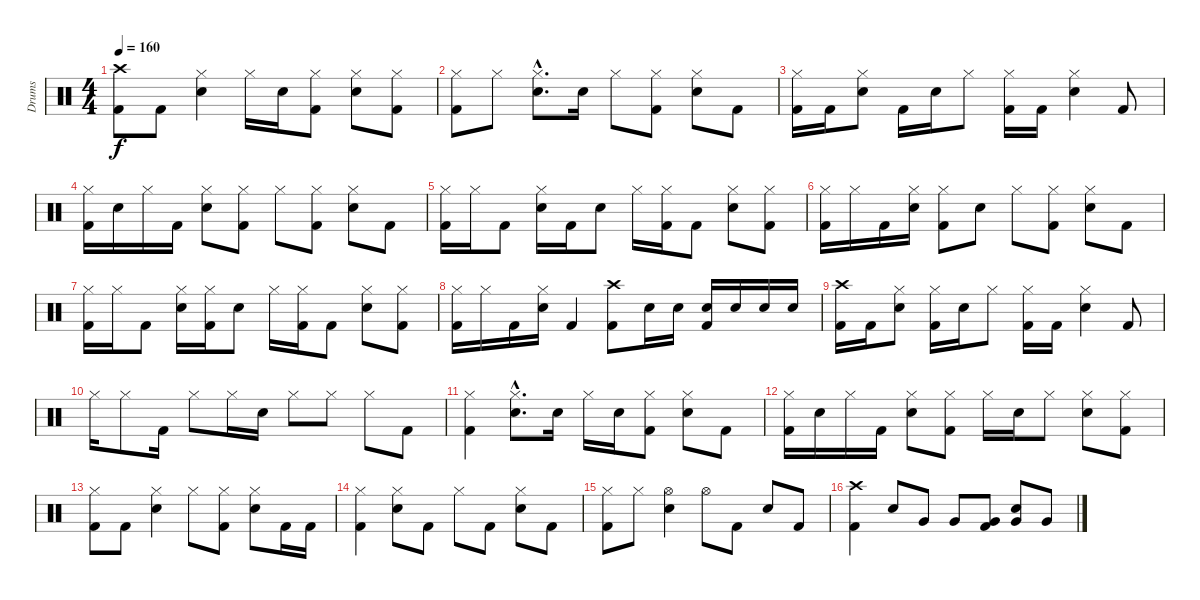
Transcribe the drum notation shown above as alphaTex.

\track ("Drums" "Drums") {instrument percussion}
\staff {score}
\articulation defaults
\ts (4 4)
\tempo 160
\clef neutral
\ks c
("Crash high (hit)" "Kick (hit) 2").8{dy f} "Kick (hit) 2".8 ("Hi-Hat (closed)" "Snare (hit) 2").4 "Hi-Hat (closed)".16 "Snare (hit) 2".16 ("Hi-Hat (closed)" "Kick (hit) 2").8 ("Hi-Hat (closed)" "Snare (hit) 2").8 ("Hi-Hat (closed)" "Kick (hit) 2").8 |
("Hi-Hat (closed)" "Kick (hit) 2").8 "Hi-Hat (closed)".8 ("Hi-Hat (closed)"{hac} "Snare (hit) 2"{hac}).8{d} "Snare (hit) 2".16 "Hi-Hat (closed)".8 ("Hi-Hat (closed)" "Kick (hit) 2").8 ("Hi-Hat (closed)" "Snare (hit) 2").8 "Kick (hit) 2".8 |
("Hi-Hat (closed)" "Kick (hit) 2").16 "Kick (hit) 2".16 ("Hi-Hat (closed)" "Snare (hit) 2").8 "Kick (hit) 2".16 "Snare (hit) 2".16 "Hi-Hat (closed)".8 ("Hi-Hat (closed)" "Kick (hit) 2").16 "Kick (hit) 2".16 ("Hi-Hat (closed)" "Snare (hit) 2").4 "Kick (hit) 2".8 |
("Hi-Hat (closed)" "Kick (hit) 2").16 "Snare (hit) 2".16 "Hi-Hat (closed)".16 "Kick (hit) 2".16 ("Hi-Hat (closed)" "Snare (hit) 2").8 ("Hi-Hat (closed)" "Kick (hit) 2").8 "Hi-Hat (closed)".8 ("Hi-Hat (closed)" "Kick (hit) 2").8 ("Hi-Hat (closed)" "Snare (hit) 2").8 "Kick (hit) 2".8 |
("Hi-Hat (closed)" "Kick (hit) 2").16 "Hi-Hat (closed)".16 "Kick (hit) 2".8 ("Hi-Hat (closed)" "Snare (hit) 2").16 "Kick (hit) 2".16 "Snare (hit) 2".8 "Hi-Hat (closed)".16 ("Hi-Hat (closed)" "Kick (hit) 2").16 "Kick (hit) 2".8 ("Hi-Hat (closed)" "Snare (hit) 2").8 ("Hi-Hat (closed)" "Kick (hit) 2").8 |
("Hi-Hat (closed)" "Kick (hit) 2").16 "Hi-Hat (closed)".16 "Kick (hit) 2".16 ("Hi-Hat (closed)" "Snare (hit) 2").16 ("Hi-Hat (closed)" "Kick (hit) 2").8 "Snare (hit) 2".8 "Hi-Hat (closed)".8 ("Hi-Hat (closed)" "Kick (hit) 2").8 ("Hi-Hat (closed)" "Snare (hit) 2").8 "Kick (hit) 2".8 |
("Hi-Hat (closed)" "Kick (hit) 2").16 "Hi-Hat (closed)".16 "Kick (hit) 2".8 ("Hi-Hat (closed)" "Snare (hit) 2").16 ("Hi-Hat (closed)" "Kick (hit) 2").16 "Snare (hit) 2".8 "Hi-Hat (closed)".16 ("Hi-Hat (closed)" "Kick (hit) 2").16 "Kick (hit) 2".8 ("Hi-Hat (closed)" "Snare (hit) 2").8 ("Hi-Hat (closed)" "Kick (hit) 2").8 |
("Hi-Hat (closed)" "Kick (hit) 2").16 "Hi-Hat (closed)".16 "Kick (hit) 2".16 ("Hi-Hat (closed)" "Snare (hit) 2").16 "Kick (hit) 2".4 ("Crash high (hit)" "Kick (hit) 2").8 "Snare (hit) 2".16 "Snare (hit) 2".16 ("Snare (hit) 2" "Kick (hit) 2").16 "Snare (hit) 2".16 "Snare (hit) 2".16 "Snare (hit) 2".16 |
("Crash high (hit)" "Kick (hit) 2").16 "Kick (hit) 2".16 ("Hi-Hat (closed)" "Snare (hit) 2").8 ("Hi-Hat (closed)" "Kick (hit) 2").16 "Snare (hit) 2".16 "Hi-Hat (closed)".8 ("Hi-Hat (closed)" "Kick (hit) 2").16 "Kick (hit) 2".16 ("Hi-Hat (closed)" "Snare (hit) 2").4 "Kick (hit) 2".8 |
"Hi-Hat (closed)".16 "Hi-Hat (closed)".8 "Kick (hit) 2".16 "Hi-Hat (closed)".8 "Hi-Hat (closed)".16 "Snare (hit) 2".16 "Hi-Hat (closed)".8 "Hi-Hat (closed)".8 "Hi-Hat (closed)".8 "Kick (hit) 2".8 |
("Hi-Hat (closed)" "Kick (hit) 2").4 ("Hi-Hat (closed)"{hac} "Snare (hit) 2"{hac}).8{d} "Snare (hit) 2".16 "Hi-Hat (closed)".16 "Snare (hit) 2".16 ("Hi-Hat (closed)" "Kick (hit) 2").8 ("Hi-Hat (closed)" "Snare (hit) 2").8 "Kick (hit) 2".8 |
("Hi-Hat (closed)" "Kick (hit) 2").16 "Snare (hit) 2".16 "Hi-Hat (closed)".16 "Kick (hit) 2".16 ("Hi-Hat (closed)" "Snare (hit) 2").8 ("Hi-Hat (closed)" "Kick (hit) 2").8 "Hi-Hat (closed)".16 "Snare (hit) 2".16 "Hi-Hat (closed)".8 ("Hi-Hat (closed)" "Snare (hit) 2").8 ("Hi-Hat (closed)" "Kick (hit) 2").8 |
("Hi-Hat (closed)" "Kick (hit) 2").8 "Kick (hit) 2".8 ("Hi-Hat (closed)" "Snare (hit) 2").4 "Hi-Hat (closed)".8 ("Hi-Hat (closed)" "Kick (hit) 2").8 ("Hi-Hat (closed)" "Snare (hit) 2").8 "Kick (hit) 2".16 "Kick (hit) 2".16 |
("Hi-Hat (closed)" "Kick (hit) 2").4 ("Hi-Hat (closed)" "Snare (hit) 2").8 "Kick (hit) 2".8 "Hi-Hat (closed)".8 "Kick (hit) 2".8 ("Hi-Hat (closed)" "Snare (hit) 2").8 "Kick (hit) 2".8 |
("Hi-Hat (closed)" "Kick (hit) 2").8 "Hi-Hat (closed)".8 ("Hi-Hat (open)" "Snare (hit) 2").4 "Hi-Hat (open)".8 "Kick (hit) 2".8 "Snare (hit) 2".8 "Kick (hit) 2".8 |
("Crash high (hit)" "Kick (hit) 2").4 "Snare (hit) 2".8 "Very Low Tom (hit)".8 "Very Low Tom (hit)".8 ("Very Low Tom (hit)" "Kick (hit) 2").8 ("Very Low Tom (hit)" "Snare (hit) 2").8 "Very Low Tom (hit)".8
